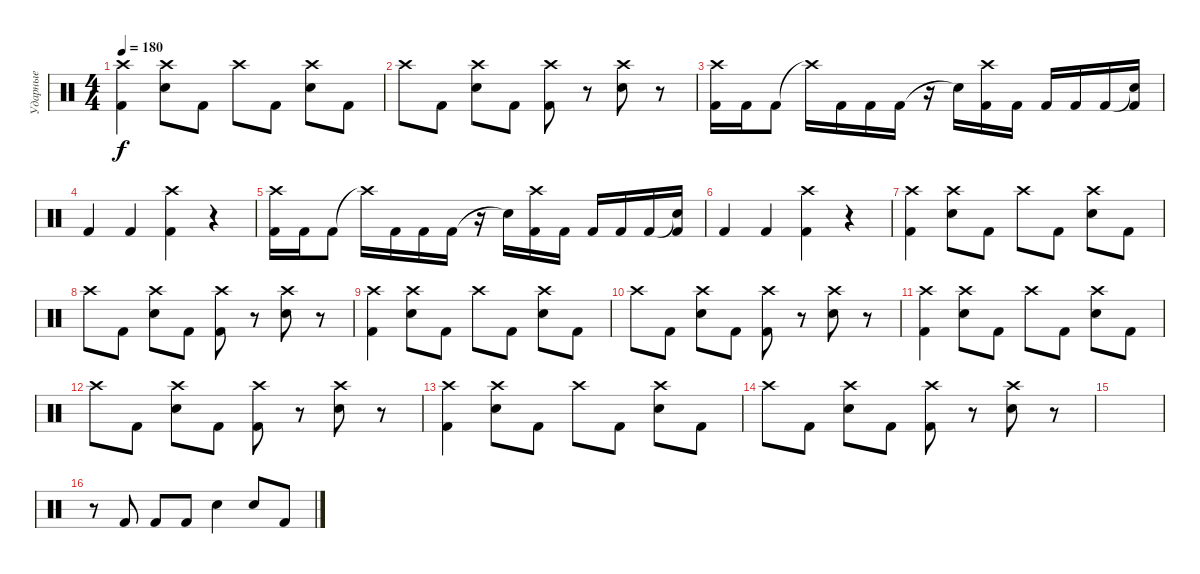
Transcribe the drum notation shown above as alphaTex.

\track ("Ударные" "Ударные") {instrument percussion}
\staff {score}
\articulation defaults
\ts (4 4)
\tempo 180
\clef neutral
\ks c
("Crash high (hit)" "Kick (hit) 2").4{dy f} ("Crash high (hit)" "Electric Snare (hit)").8 "Kick (hit) 2".8 "Crash high (hit)".8 "Kick (hit) 2".8 ("Crash high (hit)" "Electric Snare (hit)").8 "Kick (hit) 2".8 |
"Crash high (hit)".8 "Kick (hit) 2".8 ("Crash high (hit)" "Electric Snare (hit)").8 "Kick (hit) 2".8 ("Crash high (hit)" "Kick (hit) 2").8 r.8 ("Crash high (hit)" "Electric Snare (hit)").8 r.8 |
("Crash high (hit)" "Kick (hit) 2").16 "Kick (hit) 2".16 "Kick (hit) 2".8 "Crash high (hit)"{t}.16 "Kick (hit) 2".16 "Kick (hit) 2".16 "Kick (hit) 2".16 r.16 "Snare (hit)"{t}.16 ("Crash high (hit)" "Kick (hit) 2").16 "Kick (hit) 2".16 "Kick (hit) 2".16 "Kick (hit) 2".16 "Kick (hit) 2".16 ("Snare (hit)"{t} "Kick (hit) 2").16 |
"Kick (hit) 2".4 "Kick (hit) 2".4 ("Crash high (hit)" "Kick (hit) 2").4 r.4 |
("Crash high (hit)" "Kick (hit) 2").16 "Kick (hit) 2".16 "Kick (hit) 2".8 "Crash high (hit)"{t}.16 "Kick (hit) 2".16 "Kick (hit) 2".16 "Kick (hit) 2".16 r.16 "Snare (hit)"{t}.16 ("Crash high (hit)" "Kick (hit) 2").16 "Kick (hit) 2".16 "Kick (hit) 2".16 "Kick (hit) 2".16 "Kick (hit) 2".16 ("Snare (hit)"{t} "Kick (hit) 2").16 |
"Kick (hit) 2".4 "Kick (hit) 2".4 ("Crash high (hit)" "Kick (hit) 2").4 r.4 |
("Crash high (hit)" "Kick (hit) 2").4 ("Crash high (hit)" "Electric Snare (hit)").8 "Kick (hit) 2".8 "Crash high (hit)".8 "Kick (hit) 2".8 ("Crash high (hit)" "Electric Snare (hit)").8 "Kick (hit) 2".8 |
"Crash high (hit)".8 "Kick (hit) 2".8 ("Crash high (hit)" "Electric Snare (hit)").8 "Kick (hit) 2".8 ("Crash high (hit)" "Kick (hit) 2").8 r.8 ("Crash high (hit)" "Electric Snare (hit)").8 r.8 |
("Crash high (hit)" "Kick (hit) 2").4 ("Crash high (hit)" "Electric Snare (hit)").8 "Kick (hit) 2".8 "Crash high (hit)".8 "Kick (hit) 2".8 ("Crash high (hit)" "Electric Snare (hit)").8 "Kick (hit) 2".8 |
"Crash high (hit)".8 "Kick (hit) 2".8 ("Crash high (hit)" "Electric Snare (hit)").8 "Kick (hit) 2".8 ("Crash high (hit)" "Kick (hit) 2").8 r.8 ("Crash high (hit)" "Electric Snare (hit)").8 r.8 |
("Crash high (hit)" "Kick (hit) 2").4 ("Crash high (hit)" "Electric Snare (hit)").8 "Kick (hit) 2".8 "Crash high (hit)".8 "Kick (hit) 2".8 ("Crash high (hit)" "Electric Snare (hit)").8 "Kick (hit) 2".8 |
"Crash high (hit)".8 "Kick (hit) 2".8 ("Crash high (hit)" "Electric Snare (hit)").8 "Kick (hit) 2".8 ("Crash high (hit)" "Kick (hit) 2").8 r.8 ("Crash high (hit)" "Electric Snare (hit)").8 r.8 |
("Crash high (hit)" "Kick (hit) 2").4 ("Crash high (hit)" "Electric Snare (hit)").8 "Kick (hit) 2".8 "Crash high (hit)".8 "Kick (hit) 2".8 ("Crash high (hit)" "Electric Snare (hit)").8 "Kick (hit) 2".8 |
"Crash high (hit)".8 "Kick (hit) 2".8 ("Crash high (hit)" "Electric Snare (hit)").8 "Kick (hit) 2".8 ("Crash high (hit)" "Kick (hit) 2").8 r.8 ("Crash high (hit)" "Electric Snare (hit)").8 r.8 |
|
r.8 "Kick (hit) 2".8 "Kick (hit) 2".8 "Kick (hit) 2".8 "Electric Snare (hit)".4 "Electric Snare (hit)".8 "Kick (hit) 2".8
